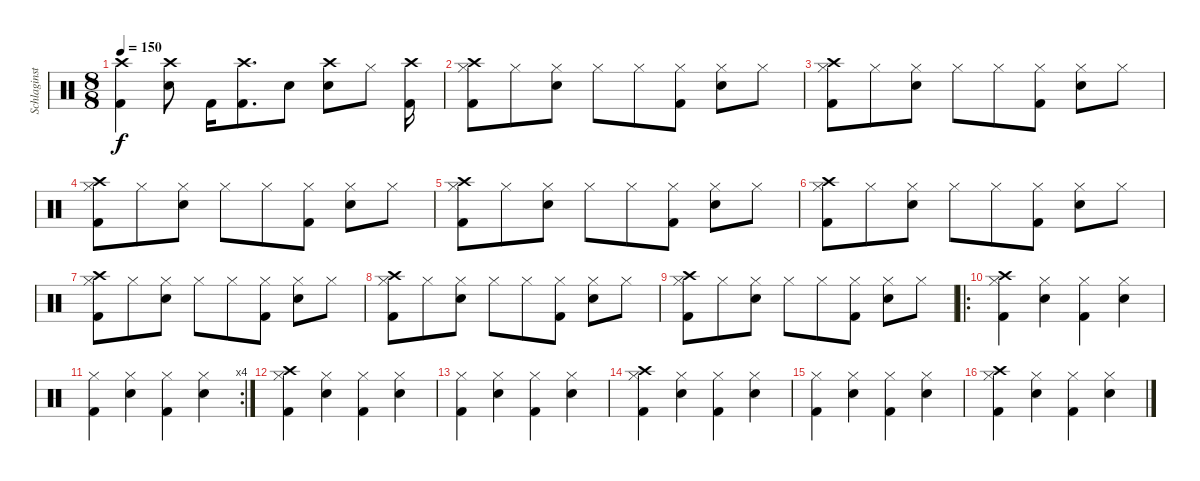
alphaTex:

\track ("Schlaginstrumente - Auswahl" "Schlaginst") {instrument percussion}
\staff {score}
\articulation defaults
\ts (8 8)
\tempo 150
\clef neutral
\ks c
("Kick (hit) 2" "Crash high (hit)").4{dy f} ("Snare (hit) 2" "Crash high (hit)").8 "Kick (hit) 2".16 ("Kick (hit) 2" "Crash high (hit)").8{d} "Snare (hit) 2".8 ("Snare (hit) 2" "Crash high (hit)").8 "Hi-Hat (closed)".8 ("Kick (hit) 2" "Crash high (hit)").16 |
("Hi-Hat (closed)" "Kick (hit) 2" "Crash high (hit)").8 "Hi-Hat (closed)".8 ("Hi-Hat (closed)" "Snare (hit) 2").8 "Hi-Hat (closed)".8 "Hi-Hat (closed)".8 ("Hi-Hat (closed)" "Kick (hit) 2").8 ("Hi-Hat (closed)" "Snare (hit) 2").8 "Hi-Hat (closed)".8 |
("Hi-Hat (closed)" "Kick (hit) 2" "Crash high (hit)").8 "Hi-Hat (closed)".8 ("Hi-Hat (closed)" "Snare (hit) 2").8 "Hi-Hat (closed)".8 "Hi-Hat (closed)".8 ("Hi-Hat (closed)" "Kick (hit) 2").8 ("Hi-Hat (closed)" "Snare (hit) 2").8 "Hi-Hat (closed)".8 |
("Hi-Hat (closed)" "Kick (hit) 2" "Crash high (hit)").8 "Hi-Hat (closed)".8 ("Hi-Hat (closed)" "Snare (hit) 2").8 "Hi-Hat (closed)".8 "Hi-Hat (closed)".8 ("Hi-Hat (closed)" "Kick (hit) 2").8 ("Hi-Hat (closed)" "Snare (hit) 2").8 "Hi-Hat (closed)".8 |
("Hi-Hat (closed)" "Kick (hit) 2" "Crash high (hit)").8 "Hi-Hat (closed)".8 ("Hi-Hat (closed)" "Snare (hit) 2").8 "Hi-Hat (closed)".8 "Hi-Hat (closed)".8 ("Hi-Hat (closed)" "Kick (hit) 2").8 ("Hi-Hat (closed)" "Snare (hit) 2").8 "Hi-Hat (closed)".8 |
("Hi-Hat (closed)" "Kick (hit) 2" "Crash high (hit)").8 "Hi-Hat (closed)".8 ("Hi-Hat (closed)" "Snare (hit) 2").8 "Hi-Hat (closed)".8 "Hi-Hat (closed)".8 ("Hi-Hat (closed)" "Kick (hit) 2").8 ("Hi-Hat (closed)" "Snare (hit) 2").8 "Hi-Hat (closed)".8 |
("Hi-Hat (closed)" "Kick (hit) 2" "Crash high (hit)").8 "Hi-Hat (closed)".8 ("Hi-Hat (closed)" "Snare (hit) 2").8 "Hi-Hat (closed)".8 "Hi-Hat (closed)".8 ("Hi-Hat (closed)" "Kick (hit) 2").8 ("Hi-Hat (closed)" "Snare (hit) 2").8 "Hi-Hat (closed)".8 |
("Hi-Hat (closed)" "Kick (hit) 2" "Crash high (hit)").8 "Hi-Hat (closed)".8 ("Hi-Hat (closed)" "Snare (hit) 2").8 "Hi-Hat (closed)".8 "Hi-Hat (closed)".8 ("Hi-Hat (closed)" "Kick (hit) 2").8 ("Hi-Hat (closed)" "Snare (hit) 2").8 "Hi-Hat (closed)".8 |
("Hi-Hat (closed)" "Kick (hit) 2" "Crash high (hit)").8 "Hi-Hat (closed)".8 ("Hi-Hat (closed)" "Snare (hit) 2").8 "Hi-Hat (closed)".8 "Hi-Hat (closed)".8 ("Hi-Hat (closed)" "Kick (hit) 2").8 ("Hi-Hat (closed)" "Snare (hit) 2").8 "Hi-Hat (closed)".8 |
\ro
("Hi-Hat (closed)" "Kick (hit) 2" "Crash high (hit)").4 ("Hi-Hat (closed)" "Snare (hit) 2").4 ("Hi-Hat (closed)" "Kick (hit) 2").4 ("Hi-Hat (closed)" "Snare (hit) 2").4 |
\rc 4
("Hi-Hat (closed)" "Kick (hit) 2").4 ("Hi-Hat (closed)" "Snare (hit) 2").4 ("Hi-Hat (closed)" "Kick (hit) 2").4 ("Hi-Hat (closed)" "Snare (hit) 2").4 |
("Hi-Hat (closed)" "Kick (hit) 2" "Crash high (hit)").4 ("Hi-Hat (closed)" "Snare (hit) 2").4 ("Hi-Hat (closed)" "Kick (hit) 2").4 ("Hi-Hat (closed)" "Snare (hit) 2").4 |
("Hi-Hat (closed)" "Kick (hit) 2").4 ("Hi-Hat (closed)" "Snare (hit) 2").4 ("Hi-Hat (closed)" "Kick (hit) 2").4 ("Hi-Hat (closed)" "Snare (hit) 2").4 |
("Hi-Hat (closed)" "Kick (hit) 2" "Crash high (hit)").4 ("Hi-Hat (closed)" "Snare (hit) 2").4 ("Hi-Hat (closed)" "Kick (hit) 2").4 ("Hi-Hat (closed)" "Snare (hit) 2").4 |
("Hi-Hat (closed)" "Kick (hit) 2").4 ("Hi-Hat (closed)" "Snare (hit) 2").4 ("Hi-Hat (closed)" "Kick (hit) 2").4 ("Hi-Hat (closed)" "Snare (hit) 2").4 |
("Hi-Hat (closed)" "Kick (hit) 2" "Crash high (hit)").4 ("Hi-Hat (closed)" "Snare (hit) 2").4 ("Hi-Hat (closed)" "Kick (hit) 2").4 ("Hi-Hat (closed)" "Snare (hit) 2").4
